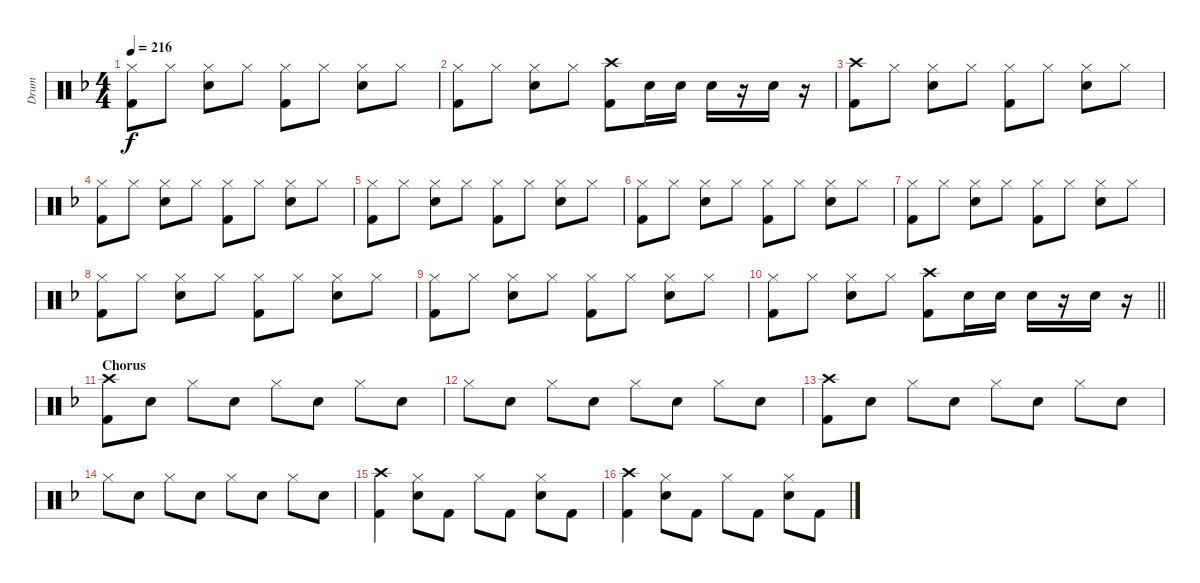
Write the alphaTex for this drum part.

\track ("Drum" "Drum") {instrument percussion}
\staff {score}
\articulation defaults
\ts (4 4)
\tempo 216
\clef neutral
\ks f
("Hi-Hat (closed)" "Kick (hit) 2").8{dy f} "Hi-Hat (closed)".8 ("Hi-Hat (closed)" "Snare (hit) 2").8 "Hi-Hat (closed)".8 ("Hi-Hat (closed)" "Kick (hit) 2").8 "Hi-Hat (closed)".8 ("Hi-Hat (closed)" "Snare (hit) 2").8 "Hi-Hat (closed)".8 |
("Hi-Hat (closed)" "Kick (hit) 2").8 "Hi-Hat (closed)".8 ("Hi-Hat (closed)" "Snare (hit) 2").8 "Hi-Hat (closed)".8 ("Crash high (hit)" "Kick (hit) 2").8 "Snare (hit) 2".16 "Snare (hit) 2".16 "Snare (hit) 2".16 r.16 "Snare (hit) 2".16 r.16 |
("Crash high (hit)" "Kick (hit) 2").8 "Hi-Hat (closed)".8 ("Hi-Hat (closed)" "Snare (hit) 2").8 "Hi-Hat (closed)".8 ("Hi-Hat (closed)" "Kick (hit) 2").8 "Hi-Hat (closed)".8 ("Hi-Hat (closed)" "Snare (hit) 2").8 "Hi-Hat (closed)".8 |
("Hi-Hat (closed)" "Kick (hit) 2").8 "Hi-Hat (closed)".8 ("Hi-Hat (closed)" "Snare (hit) 2").8 "Hi-Hat (closed)".8 ("Hi-Hat (closed)" "Kick (hit) 2").8 "Hi-Hat (closed)".8 ("Hi-Hat (closed)" "Snare (hit) 2").8 "Hi-Hat (closed)".8 |
("Hi-Hat (closed)" "Kick (hit) 2").8 "Hi-Hat (closed)".8 ("Hi-Hat (closed)" "Snare (hit) 2").8 "Hi-Hat (closed)".8 ("Hi-Hat (closed)" "Kick (hit) 2").8 "Hi-Hat (closed)".8 ("Hi-Hat (closed)" "Snare (hit) 2").8 "Hi-Hat (closed)".8 |
("Hi-Hat (closed)" "Kick (hit) 2").8 "Hi-Hat (closed)".8 ("Hi-Hat (closed)" "Snare (hit) 2").8 "Hi-Hat (closed)".8 ("Hi-Hat (closed)" "Kick (hit) 2").8 "Hi-Hat (closed)".8 ("Hi-Hat (closed)" "Snare (hit) 2").8 "Hi-Hat (closed)".8 |
("Hi-Hat (closed)" "Kick (hit) 2").8 "Hi-Hat (closed)".8 ("Hi-Hat (closed)" "Snare (hit) 2").8 "Hi-Hat (closed)".8 ("Hi-Hat (closed)" "Kick (hit) 2").8 "Hi-Hat (closed)".8 ("Hi-Hat (closed)" "Snare (hit) 2").8 "Hi-Hat (closed)".8 |
("Hi-Hat (closed)" "Kick (hit) 2").8 "Hi-Hat (closed)".8 ("Hi-Hat (closed)" "Snare (hit) 2").8 "Hi-Hat (closed)".8 ("Hi-Hat (closed)" "Kick (hit) 2").8 "Hi-Hat (closed)".8 ("Hi-Hat (closed)" "Snare (hit) 2").8 "Hi-Hat (closed)".8 |
("Hi-Hat (closed)" "Kick (hit) 2").8 "Hi-Hat (closed)".8 ("Hi-Hat (closed)" "Snare (hit) 2").8 "Hi-Hat (closed)".8 ("Hi-Hat (closed)" "Kick (hit) 2").8 "Hi-Hat (closed)".8 ("Hi-Hat (closed)" "Snare (hit) 2").8 "Hi-Hat (closed)".8 |
\barLineRight lightlight
("Hi-Hat (closed)" "Kick (hit) 2").8 "Hi-Hat (closed)".8 ("Hi-Hat (closed)" "Snare (hit) 2").8 "Hi-Hat (closed)".8 ("Crash high (hit)" "Kick (hit) 2").8 "Snare (hit) 2".16 "Snare (hit) 2".16 "Snare (hit) 2".16 r.16 "Snare (hit) 2".16 r.16 |
\section ("" "Chorus")
("Crash high (hit)" "Kick (hit) 2").8 "Snare (hit) 2".8 "Hi-Hat (closed)".8 "Snare (hit) 2".8 "Hi-Hat (closed)".8 "Snare (hit) 2".8 "Hi-Hat (closed)".8 "Snare (hit) 2".8 |
"Hi-Hat (closed)".8 "Snare (hit) 2".8 "Hi-Hat (closed)".8 "Snare (hit) 2".8 "Hi-Hat (closed)".8 "Snare (hit) 2".8 "Hi-Hat (closed)".8 "Snare (hit) 2".8 |
("Crash high (hit)" "Kick (hit) 2").8 "Snare (hit) 2".8 "Hi-Hat (closed)".8 "Snare (hit) 2".8 "Hi-Hat (closed)".8 "Snare (hit) 2".8 "Hi-Hat (closed)".8 "Snare (hit) 2".8 |
"Hi-Hat (closed)".8 "Snare (hit) 2".8 "Hi-Hat (closed)".8 "Snare (hit) 2".8 "Hi-Hat (closed)".8 "Snare (hit) 2".8 "Hi-Hat (closed)".8 "Snare (hit) 2".8 |
("Crash high (hit)" "Kick (hit) 2").4 ("Hi-Hat (closed)" "Snare (hit) 2").8 "Kick (hit) 2".8 "Hi-Hat (closed)".8 "Kick (hit) 2".8 ("Hi-Hat (closed)" "Snare (hit) 2").8 "Kick (hit) 2".8 |
("Crash high (hit)" "Kick (hit) 2").4 ("Hi-Hat (closed)" "Snare (hit) 2").8 "Kick (hit) 2".8 "Hi-Hat (closed)".8 "Kick (hit) 2".8 ("Hi-Hat (closed)" "Snare (hit) 2").8 "Kick (hit) 2".8
